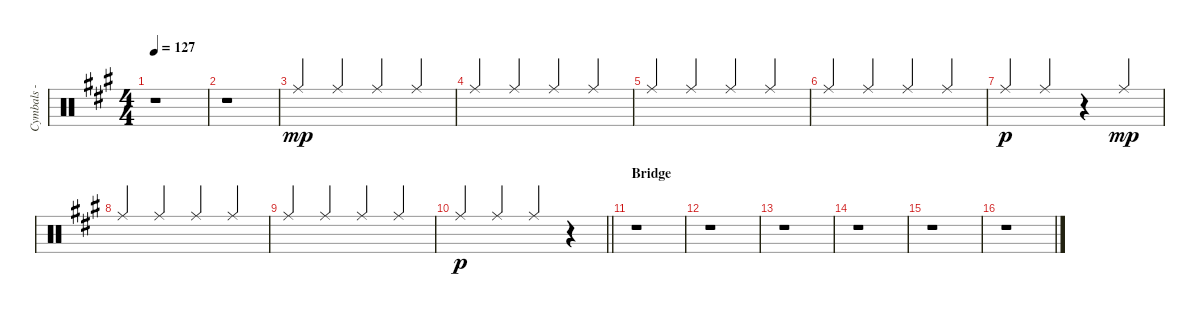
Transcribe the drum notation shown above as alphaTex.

\track ("Cymbals - ride" "Cymbals - ") {instrument percussion}
\staff {score}
\articulation defaults
\ts (4 4)
\tempo 127
\clef neutral
\ks a
r.1{dy mp} |
r.1 |
"Ride (middle)".4{beam Up} "Ride (middle)".4{beam Up} "Ride (middle)".4{beam Up} "Ride (middle)".4{beam Up} |
"Ride (middle)".4{beam Up} "Ride (middle)".4{beam Up} "Ride (middle)".4{beam Up} "Ride (middle)".4{beam Up} |
"Ride (middle)".4{beam Up} "Ride (middle)".4{beam Up} "Ride (middle)".4{beam Up} "Ride (middle)".4{beam Up} |
"Ride (middle)".4{beam Up} "Ride (middle)".4{beam Up} "Ride (middle)".4{beam Up} "Ride (middle)".4{beam Up} |
"Ride (middle)".4{dy p beam Up} "Ride (middle)".4{beam Up} r.4 "Ride (middle)".4{dy mp beam Up} |
"Ride (middle)".4{beam Up} "Ride (middle)".4{beam Up} "Ride (middle)".4{beam Up} "Ride (middle)".4{beam Up} |
"Ride (middle)".4{beam Up} "Ride (middle)".4{beam Up} "Ride (middle)".4{beam Up} "Ride (middle)".4{beam Up} |
\barLineRight lightlight "Ride (middle)".4{dy p beam Up} "Ride (middle)".4{beam Up} "Ride (middle)".4{beam Up}
r.4 |
\section ("" "Bridge")
r.1 |
r.1 |
r.1 |
r.1 |
r.1 |
r.1
